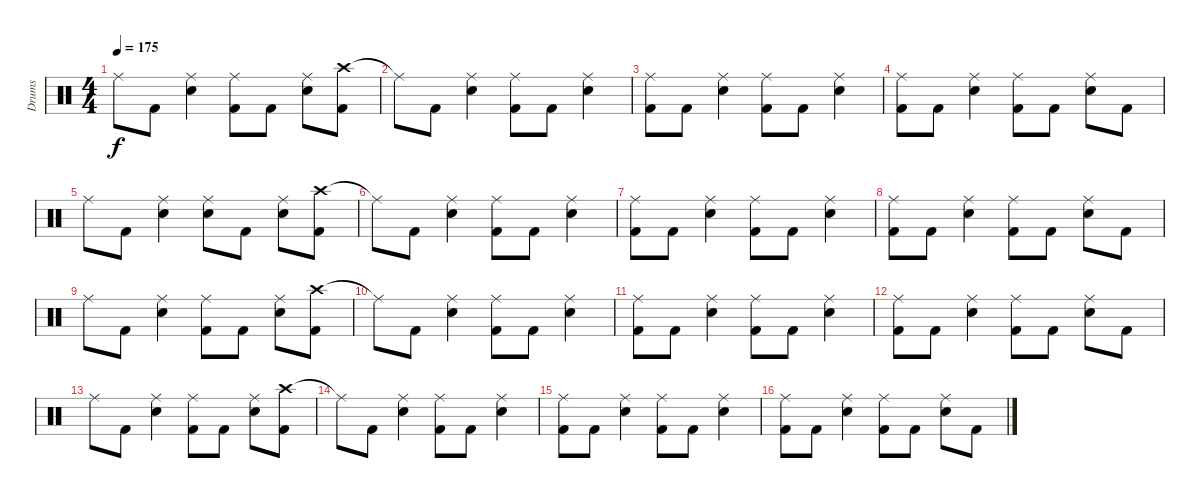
\track ("Drums" "Drums") {instrument percussion}
\staff {score}
\articulation defaults
\ts (4 4)
\tempo 175
\clef neutral
\ks c "Ride (middle)".8{dy f} "Kick (hit) 2".8
("Ride (middle)" "Snare (hit) 2").4 ("Ride (middle)" "Kick (hit) 2").8 "Kick (hit) 2".8 ("Ride (middle)" "Snare (hit) 2").8 ("Crash high (hit)" "Kick (hit) 2").8 |
"Ride (middle)"{t}.8 "Kick (hit) 2".8 ("Ride (middle)" "Snare (hit) 2").4 ("Ride (middle)" "Kick (hit) 2").8 "Kick (hit) 2".8 ("Ride (middle)" "Snare (hit) 2").4 |
("Ride (middle)" "Kick (hit) 2").8 "Kick (hit) 2".8 ("Ride (middle)" "Snare (hit) 2").4 ("Ride (middle)" "Kick (hit) 2").8 "Kick (hit) 2".8 ("Ride (middle)" "Snare (hit) 2").4 |
("Ride (middle)" "Kick (hit) 2").8 "Kick (hit) 2".8 ("Ride (middle)" "Snare (hit) 2").4 ("Ride (middle)" "Kick (hit) 2").8 "Kick (hit) 2".8 ("Ride (middle)" "Snare (hit) 2").8 "Kick (hit) 2".8 |
"Ride (middle)".8 "Kick (hit) 2".8 ("Ride (middle)" "Snare (hit) 2").4 ("Ride (middle)" "Snare (hit) 2").8 "Kick (hit) 2".8 ("Ride (middle)" "Snare (hit) 2").8 ("Crash high (hit)" "Kick (hit) 2").8 |
"Ride (middle)"{t}.8 "Kick (hit) 2".8 ("Ride (middle)" "Snare (hit) 2").4 ("Ride (middle)" "Kick (hit) 2").8 "Kick (hit) 2".8 ("Ride (middle)" "Snare (hit) 2").4 |
("Ride (middle)" "Kick (hit) 2").8 "Kick (hit) 2".8 ("Ride (middle)" "Snare (hit) 2").4 ("Ride (middle)" "Kick (hit) 2").8 "Kick (hit) 2".8 ("Ride (middle)" "Snare (hit) 2").4 |
("Ride (middle)" "Kick (hit) 2").8 "Kick (hit) 2".8 ("Ride (middle)" "Snare (hit) 2").4 ("Ride (middle)" "Kick (hit) 2").8 "Kick (hit) 2".8 ("Ride (middle)" "Snare (hit) 2").8 "Kick (hit) 2".8 |
"Ride (middle)".8 "Kick (hit) 2".8 ("Ride (middle)" "Snare (hit) 2").4 ("Ride (middle)" "Kick (hit) 2").8 "Kick (hit) 2".8 ("Ride (middle)" "Snare (hit) 2").8 ("Crash high (hit)" "Kick (hit) 2").8 |
"Ride (middle)"{t}.8 "Kick (hit) 2".8 ("Ride (middle)" "Snare (hit) 2").4 ("Ride (middle)" "Kick (hit) 2").8 "Kick (hit) 2".8 ("Ride (middle)" "Snare (hit) 2").4 |
("Ride (middle)" "Kick (hit) 2").8 "Kick (hit) 2".8 ("Ride (middle)" "Snare (hit) 2").4 ("Ride (middle)" "Kick (hit) 2").8 "Kick (hit) 2".8 ("Ride (middle)" "Snare (hit) 2").4 |
("Ride (middle)" "Kick (hit) 2").8 "Kick (hit) 2".8 ("Ride (middle)" "Snare (hit) 2").4 ("Ride (middle)" "Kick (hit) 2").8 "Kick (hit) 2".8 ("Ride (middle)" "Snare (hit) 2").8 "Kick (hit) 2".8 |
"Ride (middle)".8 "Kick (hit) 2".8 ("Ride (middle)" "Snare (hit) 2").4 ("Ride (middle)" "Kick (hit) 2").8 "Kick (hit) 2".8 ("Ride (middle)" "Snare (hit) 2").8 ("Crash high (hit)" "Kick (hit) 2").8 |
"Ride (middle)"{t}.8 "Kick (hit) 2".8 ("Ride (middle)" "Snare (hit) 2").4 ("Ride (middle)" "Kick (hit) 2").8 "Kick (hit) 2".8 ("Ride (middle)" "Snare (hit) 2").4 |
("Ride (middle)" "Kick (hit) 2").8 "Kick (hit) 2".8 ("Ride (middle)" "Snare (hit) 2").4 ("Ride (middle)" "Kick (hit) 2").8 "Kick (hit) 2".8 ("Ride (middle)" "Snare (hit) 2").4 |
("Ride (middle)" "Kick (hit) 2").8 "Kick (hit) 2".8 ("Ride (middle)" "Snare (hit) 2").4 ("Ride (middle)" "Kick (hit) 2").8 "Kick (hit) 2".8 ("Ride (middle)" "Snare (hit) 2").8 "Kick (hit) 2".8
